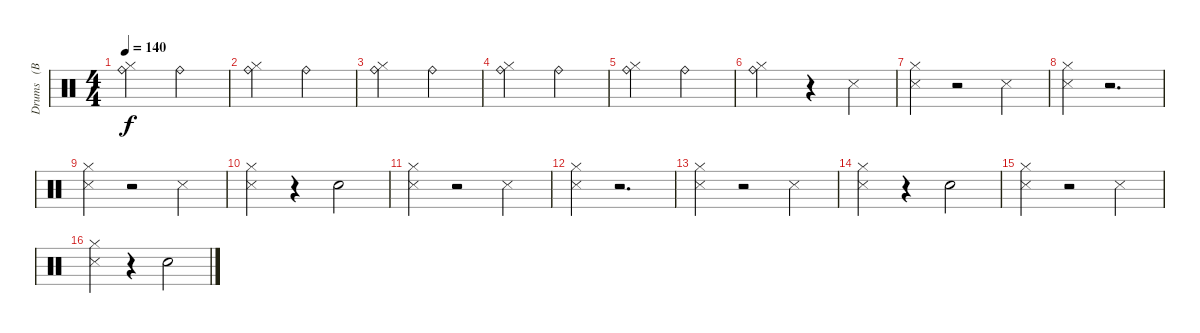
\track ("Drums   (BB)" "Drums   (B") {instrument percussion}
\staff {score}
\articulation defaults
\ts (4 4)
\tempo 140
\clef neutral
\ks c
("Ride (bell)" "Hi-Hat (closed)").2{dy f} "Ride (bell)".2 |
("Ride (bell)" "Hi-Hat (closed)").2 "Ride (bell)".2 |
("Ride (bell)" "Hi-Hat (closed)").2 "Ride (bell)".2 |
("Ride (bell)" "Hi-Hat (closed)").2 "Ride (bell)".2 |
("Ride (bell)" "Hi-Hat (closed)").2 "Ride (bell)".2 |
("Ride (bell)" "Hi-Hat (closed)").2 r.4 "Metronome (hit)".4 |
("Metronome (hit)" "Hi-Hat (closed)").4 r.2 "Metronome (hit)".4 |
("Metronome (hit)" "Hi-Hat (closed)").4 r.2{d} |
("Metronome (hit)" "Hi-Hat (closed)").4 r.2 "Metronome (hit)".4 |
("Metronome (hit)" "Hi-Hat (closed)").4 r.4 "Snare (hit) 2".2 |
("Metronome (hit)" "Hi-Hat (closed)").4 r.2 "Metronome (hit)".4 |
("Metronome (hit)" "Hi-Hat (closed)").4 r.2{d} |
("Metronome (hit)" "Hi-Hat (closed)").4 r.2 "Metronome (hit)".4 |
("Metronome (hit)" "Hi-Hat (closed)").4 r.4 "Snare (hit) 2".2 |
("Metronome (hit)" "Hi-Hat (closed)").4{volume 4} r.2 "Metronome (hit)".4{volume 5} |
("Metronome (hit)" "Hi-Hat (closed)").4 r.4 "Snare (hit) 2".2{volume 5}
